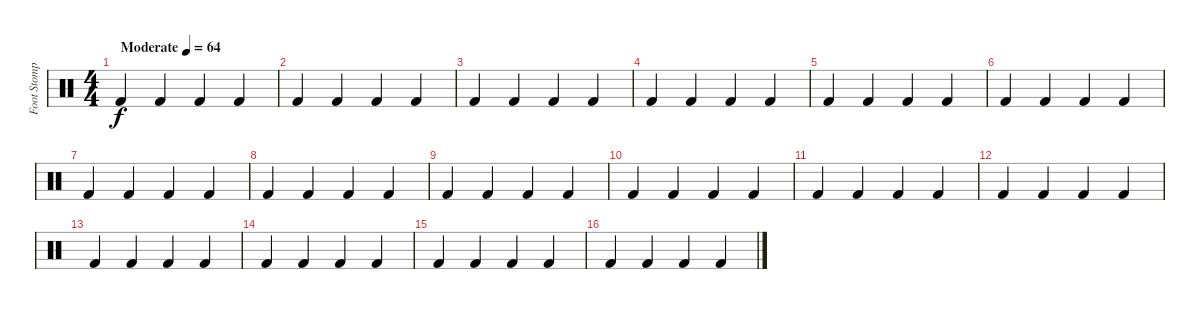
\track ("Foot Stomp" "Foot Stomp") {instrument percussion}
\staff {score}
\articulation defaults
\ts (4 4)
\tempo (64 "Moderate")
\clef neutral
\ks c "Kick (hit) 2".4{dy f} "Kick (hit) 2".4 "Kick (hit) 2".4 "Kick (hit) 2".4
|
"Kick (hit) 2".4 "Kick (hit) 2".4 "Kick (hit) 2".4 "Kick (hit) 2".4 |
"Kick (hit) 2".4 "Kick (hit) 2".4 "Kick (hit) 2".4 "Kick (hit) 2".4 |
"Kick (hit) 2".4 "Kick (hit) 2".4 "Kick (hit) 2".4 "Kick (hit) 2".4 |
"Kick (hit) 2".4 "Kick (hit) 2".4 "Kick (hit) 2".4 "Kick (hit) 2".4 |
"Kick (hit) 2".4 "Kick (hit) 2".4 "Kick (hit) 2".4 "Kick (hit) 2".4 |
"Kick (hit) 2".4 "Kick (hit) 2".4 "Kick (hit) 2".4 "Kick (hit) 2".4 |
"Kick (hit) 2".4 "Kick (hit) 2".4 "Kick (hit) 2".4 "Kick (hit) 2".4 |
"Kick (hit) 2".4 "Kick (hit) 2".4 "Kick (hit) 2".4 "Kick (hit) 2".4 |
"Kick (hit) 2".4 "Kick (hit) 2".4 "Kick (hit) 2".4 "Kick (hit) 2".4 |
"Kick (hit) 2".4 "Kick (hit) 2".4 "Kick (hit) 2".4 "Kick (hit) 2".4 |
"Kick (hit) 2".4 "Kick (hit) 2".4 "Kick (hit) 2".4 "Kick (hit) 2".4 |
"Kick (hit) 2".4 "Kick (hit) 2".4 "Kick (hit) 2".4 "Kick (hit) 2".4 |
"Kick (hit) 2".4 "Kick (hit) 2".4 "Kick (hit) 2".4 "Kick (hit) 2".4 |
"Kick (hit) 2".4 "Kick (hit) 2".4 "Kick (hit) 2".4 "Kick (hit) 2".4 |
"Kick (hit) 2".4 "Kick (hit) 2".4 "Kick (hit) 2".4 "Kick (hit) 2".4
